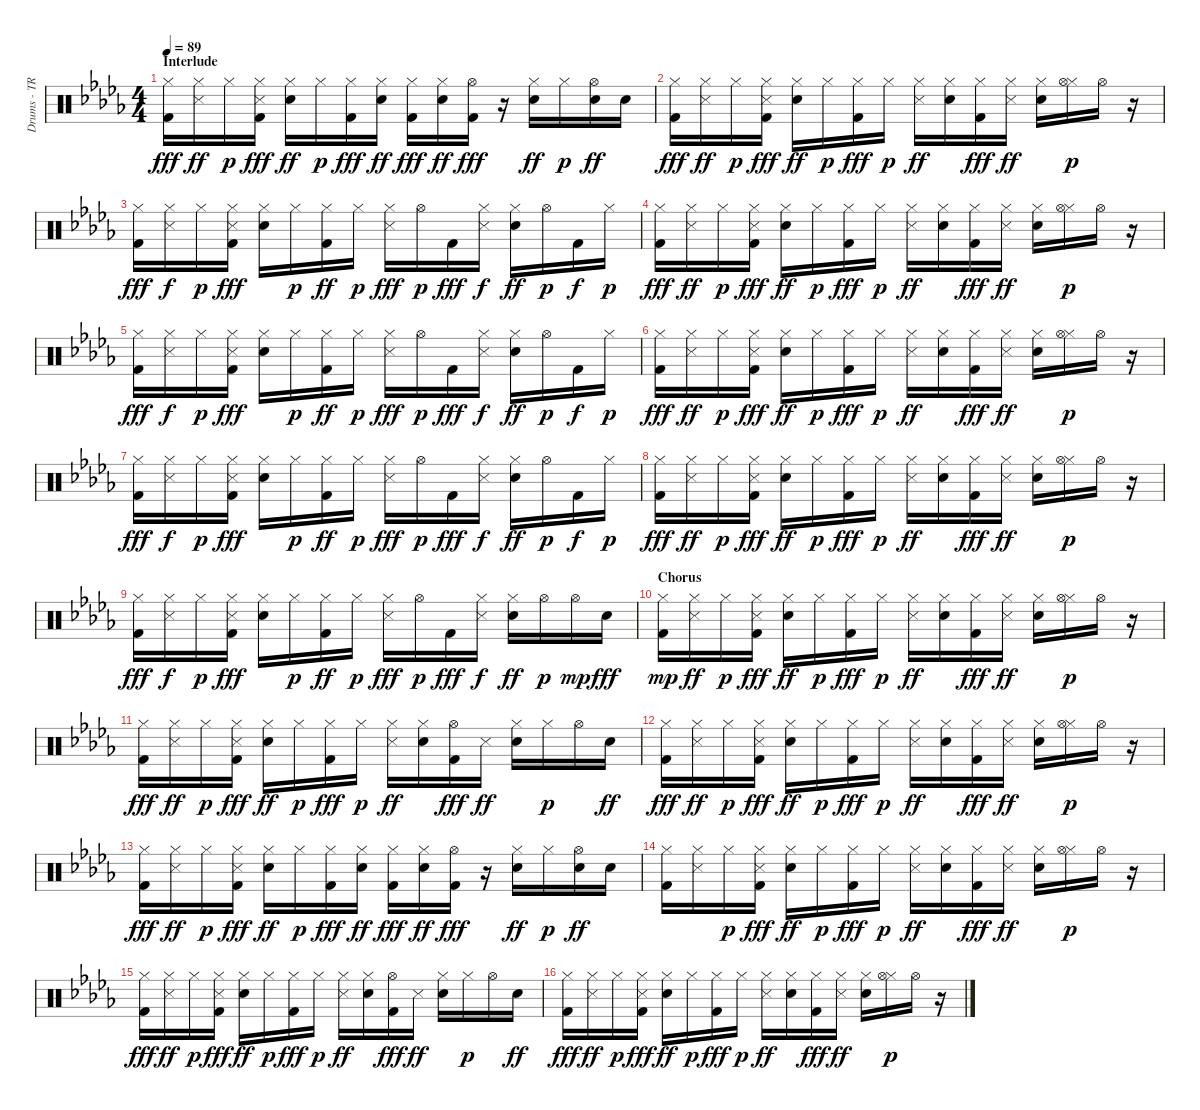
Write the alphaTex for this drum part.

\track ("Drums - TR808" "Drums - TR") {instrument percussion}
\staff {score}
\articulation defaults
\ts (4 4)
\section ("" "Interlude")
\tempo 89
\clef neutral
\ks bbminor
("Kick (hit) 2" "Hi-Hat (closed)").16{dy fff} ("Snare (side stick) 3" "Hi-Hat (closed)").16{dy ff} "Hi-Hat (closed)".16{dy p} ("Kick (hit) 2" "Snare (side stick) 3" "Hi-Hat (closed)").16{dy fff} ("Snare (hit) 2" "Hi-Hat (closed)").16{dy ff} "Hi-Hat (closed)".16{dy p} ("Kick (hit) 2" "Hi-Hat (closed)").16{dy fff} ("Snare (hit) 2" "Hi-Hat (closed)").16{dy ff} ("Kick (hit) 2" "Hi-Hat (closed)").16{dy fff} ("Snare (hit) 2" "Hi-Hat (closed)").16{dy ff} ("Kick (hit) 2" "Hi-Hat (open)").16{dy fff} r.16 ("Snare (hit) 2" "Hi-Hat (closed)").16{dy ff} "Hi-Hat (closed)".16{dy p} ("Snare (hit) 2" "Hi-Hat (open)").16{dy ff} "Snare (hit) 2".16 |
("Kick (hit) 2" "Hi-Hat (closed)").16{dy fff} ("Snare (side stick) 3" "Hi-Hat (closed)").16{dy ff} "Hi-Hat (closed)".16{dy p} ("Kick (hit) 2" "Snare (side stick) 3" "Hi-Hat (closed)").16{dy fff} ("Snare (hit) 2" "Hi-Hat (closed)").16{dy ff} "Hi-Hat (closed)".16{dy p} ("Kick (hit) 2" "Hi-Hat (closed)").16{dy fff} "Hi-Hat (closed)".16{dy p} ("Snare (side stick) 3" "Hi-Hat (closed)").16{dy ff} ("Snare (hit) 2" "Hi-Hat (closed)").16 ("Kick (hit) 2" "Hi-Hat (closed)").16{dy fff} ("Snare (side stick) 3" "Hi-Hat (closed)").16{dy ff} ("Snare (hit) 2" "Hi-Hat (closed)").16 ("Hi-Hat (closed)" "Hi-Hat (open)").16{dy p} "Hi-Hat (open)".16 r.16 |
("Kick (hit) 2" "Hi-Hat (closed)").16{dy fff} ("Snare (side stick) 3" "Hi-Hat (closed)").16{dy f} "Hi-Hat (closed)".16{dy p} ("Kick (hit) 2" "Snare (side stick) 3" "Hi-Hat (closed)").16{dy fff} ("Snare (hit) 2" "Hi-Hat (closed)").16 "Hi-Hat (closed)".16{dy p} ("Kick (hit) 2" "Hi-Hat (closed)").16{dy ff} "Hi-Hat (closed)".16{dy p} ("Snare (side stick) 3" "Hi-Hat (closed)").16{dy fff} "Hi-Hat (open)".16{dy p} "Kick (hit) 2".16{dy fff} ("Snare (side stick) 3" "Hi-Hat (closed)").16{dy f} ("Snare (hit) 2" "Hi-Hat (closed)").16{dy ff} "Hi-Hat (open)".16{dy p} "Kick (hit) 2".16{dy f} "Hi-Hat (closed)".16{dy p} |
("Kick (hit) 2" "Hi-Hat (closed)").16{dy fff} ("Snare (side stick) 3" "Hi-Hat (closed)").16{dy ff} "Hi-Hat (closed)".16{dy p} ("Kick (hit) 2" "Snare (side stick) 3" "Hi-Hat (closed)").16{dy fff} ("Snare (hit) 2" "Hi-Hat (closed)").16{dy ff} "Hi-Hat (closed)".16{dy p} ("Kick (hit) 2" "Hi-Hat (closed)").16{dy fff} "Hi-Hat (closed)".16{dy p} ("Snare (side stick) 3" "Hi-Hat (closed)").16{dy ff} ("Snare (hit) 2" "Hi-Hat (closed)").16 ("Kick (hit) 2" "Hi-Hat (closed)").16{dy fff} ("Snare (side stick) 3" "Hi-Hat (closed)").16{dy ff} ("Snare (hit) 2" "Hi-Hat (closed)").16 ("Hi-Hat (closed)" "Hi-Hat (open)").16{dy p} "Hi-Hat (open)".16 r.16 |
("Kick (hit) 2" "Hi-Hat (closed)").16{dy fff} ("Snare (side stick) 3" "Hi-Hat (closed)").16{dy f} "Hi-Hat (closed)".16{dy p} ("Kick (hit) 2" "Snare (side stick) 3" "Hi-Hat (closed)").16{dy fff} ("Snare (hit) 2" "Hi-Hat (closed)").16 "Hi-Hat (closed)".16{dy p} ("Kick (hit) 2" "Hi-Hat (closed)").16{dy ff} "Hi-Hat (closed)".16{dy p} ("Snare (side stick) 3" "Hi-Hat (closed)").16{dy fff} "Hi-Hat (open)".16{dy p} "Kick (hit) 2".16{dy fff} ("Snare (side stick) 3" "Hi-Hat (closed)").16{dy f} ("Snare (hit) 2" "Hi-Hat (closed)").16{dy ff} "Hi-Hat (open)".16{dy p} "Kick (hit) 2".16{dy f} "Hi-Hat (closed)".16{dy p} |
("Kick (hit) 2" "Hi-Hat (closed)").16{dy fff} ("Snare (side stick) 3" "Hi-Hat (closed)").16{dy ff} "Hi-Hat (closed)".16{dy p} ("Kick (hit) 2" "Snare (side stick) 3" "Hi-Hat (closed)").16{dy fff} ("Snare (hit) 2" "Hi-Hat (closed)").16{dy ff} "Hi-Hat (closed)".16{dy p} ("Kick (hit) 2" "Hi-Hat (closed)").16{dy fff} "Hi-Hat (closed)".16{dy p} ("Snare (side stick) 3" "Hi-Hat (closed)").16{dy ff} ("Snare (hit) 2" "Hi-Hat (closed)").16 ("Kick (hit) 2" "Hi-Hat (closed)").16{dy fff} ("Snare (side stick) 3" "Hi-Hat (closed)").16{dy ff} ("Snare (hit) 2" "Hi-Hat (closed)").16 ("Hi-Hat (closed)" "Hi-Hat (open)").16{dy p} "Hi-Hat (open)".16 r.16 |
("Kick (hit) 2" "Hi-Hat (closed)").16{dy fff} ("Snare (side stick) 3" "Hi-Hat (closed)").16{dy f} "Hi-Hat (closed)".16{dy p} ("Kick (hit) 2" "Snare (side stick) 3" "Hi-Hat (closed)").16{dy fff} ("Snare (hit) 2" "Hi-Hat (closed)").16 "Hi-Hat (closed)".16{dy p} ("Kick (hit) 2" "Hi-Hat (closed)").16{dy ff} "Hi-Hat (closed)".16{dy p} ("Snare (side stick) 3" "Hi-Hat (closed)").16{dy fff} "Hi-Hat (open)".16{dy p} "Kick (hit) 2".16{dy fff} ("Snare (side stick) 3" "Hi-Hat (closed)").16{dy f} ("Snare (hit) 2" "Hi-Hat (closed)").16{dy ff} "Hi-Hat (open)".16{dy p} "Kick (hit) 2".16{dy f} "Hi-Hat (closed)".16{dy p} |
("Kick (hit) 2" "Hi-Hat (closed)").16{dy fff} ("Snare (side stick) 3" "Hi-Hat (closed)").16{dy ff} "Hi-Hat (closed)".16{dy p} ("Kick (hit) 2" "Snare (side stick) 3" "Hi-Hat (closed)").16{dy fff} ("Snare (hit) 2" "Hi-Hat (closed)").16{dy ff} "Hi-Hat (closed)".16{dy p} ("Kick (hit) 2" "Hi-Hat (closed)").16{dy fff} "Hi-Hat (closed)".16{dy p} ("Snare (side stick) 3" "Hi-Hat (closed)").16{dy ff} ("Snare (hit) 2" "Hi-Hat (closed)").16 ("Kick (hit) 2" "Hi-Hat (closed)").16{dy fff} ("Snare (side stick) 3" "Hi-Hat (closed)").16{dy ff} ("Snare (hit) 2" "Hi-Hat (closed)").16 ("Hi-Hat (closed)" "Hi-Hat (open)").16{dy p} "Hi-Hat (open)".16 r.16 |
("Kick (hit) 2" "Hi-Hat (closed)").16{dy fff} ("Snare (side stick) 3" "Hi-Hat (closed)").16{dy f} "Hi-Hat (closed)".16{dy p} ("Kick (hit) 2" "Snare (side stick) 3" "Hi-Hat (closed)").16{dy fff} ("Snare (hit) 2" "Hi-Hat (closed)").16 "Hi-Hat (closed)".16{dy p} ("Kick (hit) 2" "Hi-Hat (closed)").16{dy ff} "Hi-Hat (closed)".16{dy p} ("Snare (side stick) 3" "Hi-Hat (closed)").16{dy fff} "Hi-Hat (open)".16{dy p} "Kick (hit) 2".16{dy fff} ("Snare (side stick) 3" "Hi-Hat (closed)").16{dy f} ("Snare (hit) 2" "Hi-Hat (closed)").16{dy ff} "Hi-Hat (open)".16{dy p} "Hi-Hat (open)".16{dy mp} "Snare (hit) 2".16{dy fff} |
\section ("" "Chorus")
("Hi-Hat (closed)" "Kick (hit) 2").16{dy mp} ("Snare (side stick) 3" "Hi-Hat (closed)").16{dy ff} "Hi-Hat (closed)".16{dy p} ("Kick (hit) 2" "Snare (side stick) 3" "Hi-Hat (closed)").16{dy fff} ("Snare (hit) 2" "Hi-Hat (closed)").16{dy ff} "Hi-Hat (closed)".16{dy p} ("Kick (hit) 2" "Hi-Hat (closed)").16{dy fff} "Hi-Hat (closed)".16{dy p} ("Snare (side stick) 3" "Hi-Hat (closed)").16{dy ff} ("Snare (hit) 2" "Hi-Hat (closed)").16 ("Kick (hit) 2" "Hi-Hat (closed)").16{dy fff} ("Snare (side stick) 3" "Hi-Hat (closed)").16{dy ff} ("Snare (hit) 2" "Hi-Hat (closed)").16 ("Hi-Hat (closed)" "Hi-Hat (open)").16{dy p} "Hi-Hat (open)".16 r.16 |
("Kick (hit) 2" "Hi-Hat (closed)").16{dy fff} ("Snare (side stick) 3" "Hi-Hat (closed)").16{dy ff} "Hi-Hat (closed)".16{dy p} ("Kick (hit) 2" "Snare (side stick) 3" "Hi-Hat (closed)").16{dy fff} ("Snare (hit) 2" "Hi-Hat (closed)").16{dy ff} "Hi-Hat (closed)".16{dy p} ("Kick (hit) 2" "Hi-Hat (closed)").16{dy fff} "Hi-Hat (closed)".16{dy p} ("Snare (side stick) 3" "Hi-Hat (closed)").16{dy ff} ("Snare (hit) 2" "Hi-Hat (closed)").16 ("Kick (hit) 2" "Hi-Hat (open)").16{dy fff} "Snare (side stick) 3".16{dy ff} ("Snare (hit) 2" "Hi-Hat (closed)").16 "Hi-Hat (closed)".16{dy p} "Hi-Hat (open)".16 "Snare (hit) 2".16{dy ff} |
("Kick (hit) 2" "Hi-Hat (closed)").16{dy fff} ("Snare (side stick) 3" "Hi-Hat (closed)").16{dy ff} "Hi-Hat (closed)".16{dy p} ("Kick (hit) 2" "Snare (side stick) 3" "Hi-Hat (closed)").16{dy fff} ("Snare (hit) 2" "Hi-Hat (closed)").16{dy ff} "Hi-Hat (closed)".16{dy p} ("Kick (hit) 2" "Hi-Hat (closed)").16{dy fff} "Hi-Hat (closed)".16{dy p} ("Snare (side stick) 3" "Hi-Hat (closed)").16{dy ff} ("Snare (hit) 2" "Hi-Hat (closed)").16 ("Kick (hit) 2" "Hi-Hat (closed)").16{dy fff} ("Snare (side stick) 3" "Hi-Hat (closed)").16{dy ff} ("Snare (hit) 2" "Hi-Hat (closed)").16 ("Hi-Hat (closed)" "Hi-Hat (open)").16{dy p} "Hi-Hat (open)".16 r.16 |
("Kick (hit) 2" "Hi-Hat (closed)").16{dy fff} ("Snare (side stick) 3" "Hi-Hat (closed)").16{dy ff} "Hi-Hat (closed)".16{dy p} ("Kick (hit) 2" "Snare (side stick) 3" "Hi-Hat (closed)").16{dy fff} ("Snare (hit) 2" "Hi-Hat (closed)").16{dy ff} "Hi-Hat (closed)".16{dy p} ("Kick (hit) 2" "Hi-Hat (closed)").16{dy fff} ("Snare (hit) 2" "Hi-Hat (closed)").16{dy ff} ("Kick (hit) 2" "Hi-Hat (closed)").16{dy fff} ("Snare (hit) 2" "Hi-Hat (closed)").16{dy ff} ("Kick (hit) 2" "Hi-Hat (open)").16{dy fff} r.16 ("Snare (hit) 2" "Hi-Hat (closed)").16{dy ff} "Hi-Hat (closed)".16{dy p} ("Snare (hit) 2" "Hi-Hat (open)").16{dy ff} "Snare (hit) 2".16 |
("Kick (hit) 2" "Hi-Hat (closed)").16 ("Snare (side stick) 3" "Hi-Hat (closed)").16 "Hi-Hat (closed)".16{dy p} ("Kick (hit) 2" "Snare (side stick) 3" "Hi-Hat (closed)").16{dy fff} ("Snare (hit) 2" "Hi-Hat (closed)").16{dy ff} "Hi-Hat (closed)".16{dy p} ("Kick (hit) 2" "Hi-Hat (closed)").16{dy fff} "Hi-Hat (closed)".16{dy p} ("Snare (side stick) 3" "Hi-Hat (closed)").16{dy ff} ("Snare (hit) 2" "Hi-Hat (closed)").16 ("Kick (hit) 2" "Hi-Hat (closed)").16{dy fff} ("Snare (side stick) 3" "Hi-Hat (closed)").16{dy ff} ("Snare (hit) 2" "Hi-Hat (closed)").16 ("Hi-Hat (closed)" "Hi-Hat (open)").16{dy p} "Hi-Hat (open)".16 r.16 |
("Kick (hit) 2" "Hi-Hat (closed)").16{dy fff} ("Snare (side stick) 3" "Hi-Hat (closed)").16{dy ff} "Hi-Hat (closed)".16{dy p} ("Kick (hit) 2" "Snare (side stick) 3" "Hi-Hat (closed)").16{dy fff} ("Snare (hit) 2" "Hi-Hat (closed)").16{dy ff} "Hi-Hat (closed)".16{dy p} ("Kick (hit) 2" "Hi-Hat (closed)").16{dy fff} "Hi-Hat (closed)".16{dy p} ("Snare (side stick) 3" "Hi-Hat (closed)").16{dy ff} ("Snare (hit) 2" "Hi-Hat (closed)").16 ("Kick (hit) 2" "Hi-Hat (open)").16{dy fff} "Snare (side stick) 3".16{dy ff} ("Snare (hit) 2" "Hi-Hat (closed)").16 "Hi-Hat (closed)".16{dy p} "Hi-Hat (open)".16 "Snare (hit) 2".16{dy ff} |
("Kick (hit) 2" "Hi-Hat (closed)").16{dy fff} ("Snare (side stick) 3" "Hi-Hat (closed)").16{dy ff} "Hi-Hat (closed)".16{dy p} ("Kick (hit) 2" "Snare (side stick) 3" "Hi-Hat (closed)").16{dy fff} ("Snare (hit) 2" "Hi-Hat (closed)").16{dy ff} "Hi-Hat (closed)".16{dy p} ("Kick (hit) 2" "Hi-Hat (closed)").16{dy fff} "Hi-Hat (closed)".16{dy p} ("Snare (side stick) 3" "Hi-Hat (closed)").16{dy ff} ("Snare (hit) 2" "Hi-Hat (closed)").16 ("Kick (hit) 2" "Hi-Hat (closed)").16{dy fff} ("Snare (side stick) 3" "Hi-Hat (closed)").16{dy ff} ("Snare (hit) 2" "Hi-Hat (closed)").16 ("Hi-Hat (closed)" "Hi-Hat (open)").16{dy p} "Hi-Hat (open)".16 r.16
